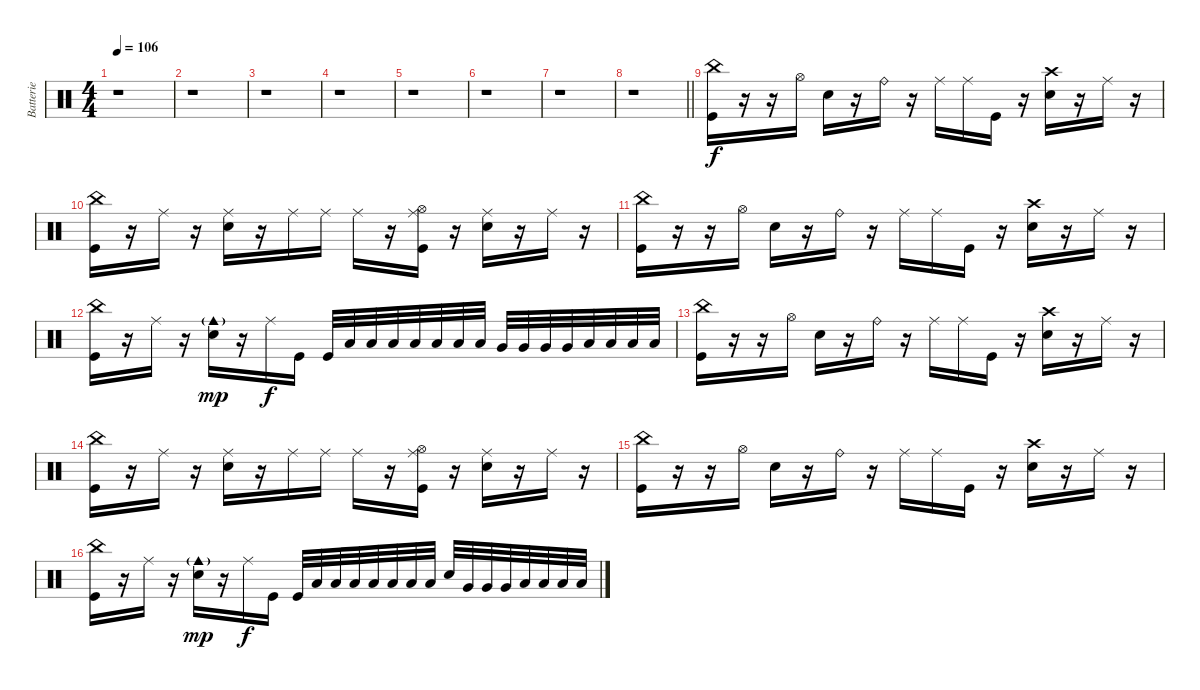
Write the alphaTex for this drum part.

\track ("Batterie" "Batterie") {instrument percussion}
\staff {score}
\articulation defaults
\ts (4 4)
\tempo 106
\clef neutral
\ks c
r.1{dy f} |
r.1 |
r.1 |
r.1 |
r.1 |
r.1 |
r.1 |
\barLineRight lightlight
r.1 |
("China (hit)" "Kick (hit)").16 r.16 r.16 "Hi-Hat (open)".16 "Electric Snare (hit)".16 r.16 "Ride (bell)".16 r.16 "Ride (middle)".16 "Ride (middle)".16 "Kick (hit)".16 r.16 ("Crash high (hit)" "Electric Snare (hit)").16 r.16 "Ride (middle)".16 r.16 |
("China (hit)" "Kick (hit)").16 r.16 "Ride (middle)".16 r.16 ("Ride (middle)" "Electric Snare (hit)").16 r.16 "Ride (middle)".16 "Ride (middle)".16 "Ride (middle)".16 r.16 ("Ride (middle)" "Hi-Hat (open)" "Kick (hit)").16 r.16 ("Ride (middle)" "Electric Snare (hit)").16 r.16 "Ride (middle)".16 r.16 |
("China (hit)" "Kick (hit)").16 r.16 r.16 "Hi-Hat (open)".16 "Electric Snare (hit)".16 r.16 "Ride (bell)".16 r.16 "Ride (middle)".16 "Ride (middle)".16 "Kick (hit)".16 r.16 ("Crash high (hit)" "Electric Snare (hit)").16 r.16 "Ride (middle)".16 r.16 |
("China (hit)" "Kick (hit)").16 r.16 "Ride (middle)".16 r.16 ("Cowbell medium (hit)"{g} "Electric Snare (hit)").16{dy mp} r.16 "Ride (middle)".16{dy f} "Kick (hit)".16 "Kick (hit)".32 "Low Tom (hit)".32 "Low Tom (hit)".32 "Low Tom (hit)".32 "Low Tom (hit)".32 "Low Tom (hit)".32 "Low Tom (hit)".32 "Low Tom (hit)".32 "Very Low Tom (hit)".32 "Very Low Tom (hit)".32 "Very Low Tom (hit)".32 "Very Low Tom (hit)".32 "Low Floor Tom (hit)".32 "Low Floor Tom (hit)".32 "Low Floor Tom (hit)".32 "Low Floor Tom (hit)".32 |
("China (hit)" "Kick (hit)").16 r.16 r.16 "Hi-Hat (open)".16 "Electric Snare (hit)".16 r.16 "Ride (bell)".16 r.16 "Ride (middle)".16 "Ride (middle)".16 "Kick (hit)".16 r.16 ("Crash high (hit)" "Electric Snare (hit)").16 r.16 "Ride (middle)".16 r.16 |
("China (hit)" "Kick (hit)").16 r.16 "Ride (middle)".16 r.16 ("Ride (middle)" "Electric Snare (hit)").16 r.16 "Ride (middle)".16 "Ride (middle)".16 "Ride (middle)".16 r.16 ("Ride (middle)" "Hi-Hat (open)" "Kick (hit)").16 r.16 ("Ride (middle)" "Electric Snare (hit)").16 r.16 "Ride (middle)".16 r.16 |
("China (hit)" "Kick (hit)").16 r.16 r.16 "Hi-Hat (open)".16 "Electric Snare (hit)".16 r.16 "Ride (bell)".16 r.16 "Ride (middle)".16 "Ride (middle)".16 "Kick (hit)".16 r.16 ("Crash high (hit)" "Electric Snare (hit)").16 r.16 "Ride (middle)".16 r.16 |
("China (hit)" "Kick (hit)").16 r.16 "Ride (middle)".16 r.16 ("Cowbell medium (hit)"{g} "Electric Snare (hit)").16{dy mp} r.16 "Ride (middle)".16{dy f} "Kick (hit)".16 "Kick (hit)".32 "Low Tom (hit)".32 "Low Tom (hit)".32 "Low Tom (hit)".32 "Low Tom (hit)".32 "Low Tom (hit)".32 "Low Tom (hit)".32 "Low Tom (hit)".32 "Electric Snare (hit)".32 "Very Low Tom (hit)".32 "Very Low Tom (hit)".32 "Very Low Tom (hit)".32 "Low Floor Tom (hit)".32 "Low Floor Tom (hit)".32 "Low Floor Tom (hit)".32 "Low Floor Tom (hit)".32
